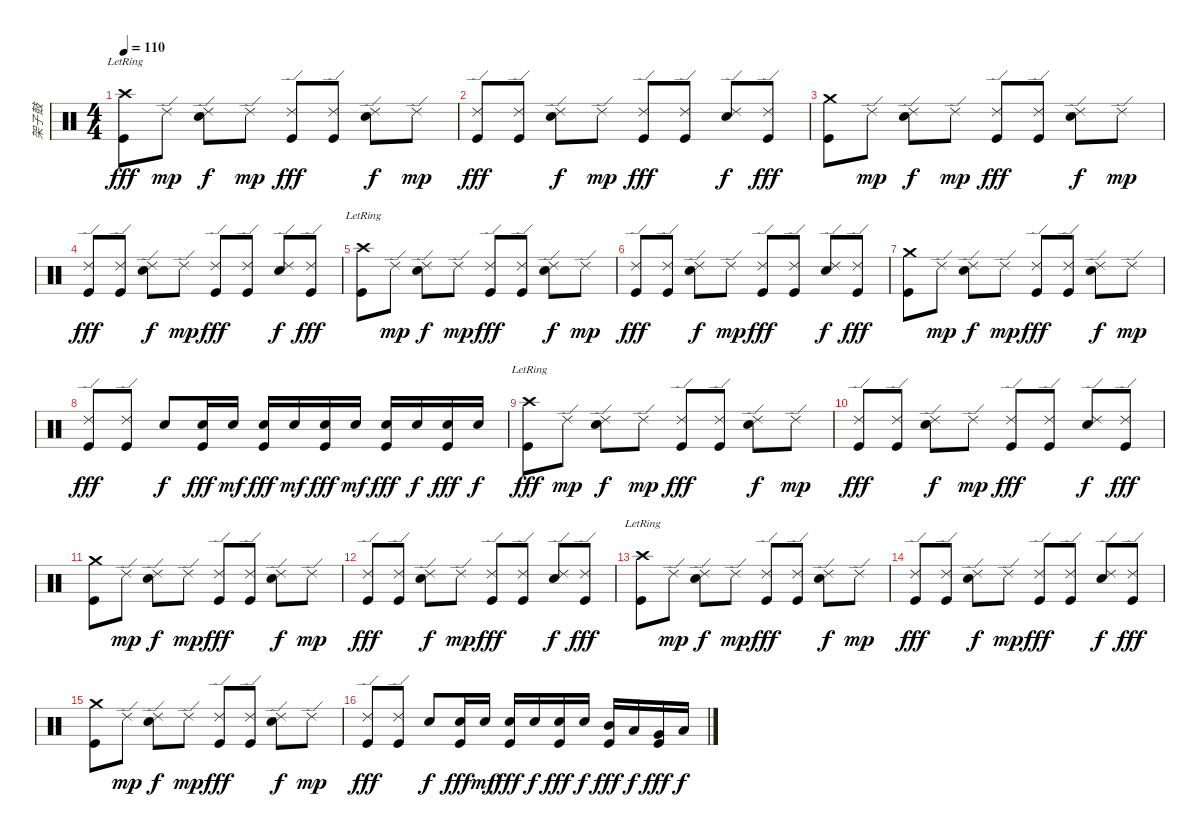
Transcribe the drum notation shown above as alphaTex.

\track ("架子鼓" "架子鼓") {instrument percussion}
\staff {score}
\articulation defaults
\ts (4 4)
\tempo 110
\clef neutral
\ks c
("Crash high (hit)"{lr} "Kick (hit)").8{dy fff volume 16} "Ride (edge) 2".8{dy mp} ("Ride (edge) 2" "Electric Snare (hit)").8{dy f} "Ride (edge) 2".8{dy mp} ("Ride (edge) 2" "Kick (hit)").8{dy fff} ("Ride (edge) 2" "Kick (hit)").8 ("Ride (edge) 2" "Electric Snare (hit)").8{dy f} "Ride (edge) 2".8{dy mp} |
("Ride (edge) 2" "Kick (hit)").8{dy fff} ("Ride (edge) 2" "Kick (hit)").8 ("Ride (edge) 2" "Electric Snare (hit)").8{dy f} "Ride (edge) 2".8{dy mp} ("Ride (edge) 2" "Kick (hit)").8{dy fff} ("Ride (edge) 2" "Kick (hit)").8 ("Ride (edge) 2" "Electric Snare (hit)").8{dy f} ("Ride (edge) 2" "Kick (hit)").8{dy fff} |
("Crash medium (hit)" "Kick (hit)").8 "Ride (edge) 2".8{dy mp} ("Ride (edge) 2" "Electric Snare (hit)").8{dy f} "Ride (edge) 2".8{dy mp} ("Ride (edge) 2" "Kick (hit)").8{dy fff} ("Ride (edge) 2" "Kick (hit)").8 ("Ride (edge) 2" "Electric Snare (hit)").8{dy f} "Ride (edge) 2".8{dy mp} |
("Ride (edge) 2" "Kick (hit)").8{dy fff} ("Ride (edge) 2" "Kick (hit)").8 ("Ride (edge) 2" "Electric Snare (hit)").8{dy f} "Ride (edge) 2".8{dy mp} ("Ride (edge) 2" "Kick (hit)").8{dy fff} ("Ride (edge) 2" "Kick (hit)").8 ("Ride (edge) 2" "Electric Snare (hit)").8{dy f} ("Ride (edge) 2" "Kick (hit)").8{dy fff} |
("Crash high (hit)"{lr} "Kick (hit)").8 "Ride (edge) 2".8{dy mp} ("Ride (edge) 2" "Electric Snare (hit)").8{dy f} "Ride (edge) 2".8{dy mp} ("Ride (edge) 2" "Kick (hit)").8{dy fff} ("Ride (edge) 2" "Kick (hit)").8 ("Ride (edge) 2" "Electric Snare (hit)").8{dy f} "Ride (edge) 2".8{dy mp} |
("Ride (edge) 2" "Kick (hit)").8{dy fff} ("Ride (edge) 2" "Kick (hit)").8 ("Ride (edge) 2" "Electric Snare (hit)").8{dy f} "Ride (edge) 2".8{dy mp} ("Ride (edge) 2" "Kick (hit)").8{dy fff} ("Ride (edge) 2" "Kick (hit)").8 ("Ride (edge) 2" "Electric Snare (hit)").8{dy f} ("Ride (edge) 2" "Kick (hit)").8{dy fff} |
("Crash medium (hit)" "Kick (hit)").8 "Ride (edge) 2".8{dy mp} ("Ride (edge) 2" "Electric Snare (hit)").8{dy f} "Ride (edge) 2".8{dy mp} ("Ride (edge) 2" "Kick (hit)").8{dy fff} ("Ride (edge) 2" "Kick (hit)").8 ("Ride (edge) 2" "Electric Snare (hit)").8{dy f} "Ride (edge) 2".8{dy mp} |
("Ride (edge) 2" "Kick (hit)").8{dy fff} ("Ride (edge) 2" "Kick (hit)").8 "Electric Snare (hit)".8{dy f} ("Electric Snare (hit)" "Kick (hit)").16{dy fff} "Electric Snare (hit)".16{dy mf} ("Electric Snare (hit)" "Kick (hit)").16{dy fff} "Electric Snare (hit)".16{dy mf} ("Electric Snare (hit)" "Kick (hit)").16{dy fff} "Electric Snare (hit)".16{dy mf} ("Electric Snare (hit)" "Kick (hit)").16{dy fff} "Electric Snare (hit)".16{dy f} ("Electric Snare (hit)" "Kick (hit)").16{dy fff} "Electric Snare (hit)".16{dy f} |
("Crash high (hit)"{lr} "Kick (hit)").8{dy fff} "Ride (edge) 2".8{dy mp} ("Ride (edge) 2" "Electric Snare (hit)").8{dy f} "Ride (edge) 2".8{dy mp} ("Ride (edge) 2" "Kick (hit)").8{dy fff} ("Ride (edge) 2" "Kick (hit)").8 ("Ride (edge) 2" "Electric Snare (hit)").8{dy f} "Ride (edge) 2".8{dy mp} |
("Ride (edge) 2" "Kick (hit)").8{dy fff} ("Ride (edge) 2" "Kick (hit)").8 ("Ride (edge) 2" "Electric Snare (hit)").8{dy f} "Ride (edge) 2".8{dy mp} ("Ride (edge) 2" "Kick (hit)").8{dy fff} ("Ride (edge) 2" "Kick (hit)").8 ("Ride (edge) 2" "Electric Snare (hit)").8{dy f} ("Ride (edge) 2" "Kick (hit)").8{dy fff} |
("Crash medium (hit)" "Kick (hit)").8 "Ride (edge) 2".8{dy mp} ("Ride (edge) 2" "Electric Snare (hit)").8{dy f} "Ride (edge) 2".8{dy mp} ("Ride (edge) 2" "Kick (hit)").8{dy fff} ("Ride (edge) 2" "Kick (hit)").8 ("Ride (edge) 2" "Electric Snare (hit)").8{dy f} "Ride (edge) 2".8{dy mp} |
("Ride (edge) 2" "Kick (hit)").8{dy fff} ("Ride (edge) 2" "Kick (hit)").8 ("Ride (edge) 2" "Electric Snare (hit)").8{dy f} "Ride (edge) 2".8{dy mp} ("Ride (edge) 2" "Kick (hit)").8{dy fff} ("Ride (edge) 2" "Kick (hit)").8 ("Ride (edge) 2" "Electric Snare (hit)").8{dy f} ("Ride (edge) 2" "Kick (hit)").8{dy fff} |
("Crash high (hit)"{lr} "Kick (hit)").8 "Ride (edge) 2".8{dy mp} ("Ride (edge) 2" "Electric Snare (hit)").8{dy f} "Ride (edge) 2".8{dy mp} ("Ride (edge) 2" "Kick (hit)").8{dy fff} ("Ride (edge) 2" "Kick (hit)").8 ("Ride (edge) 2" "Electric Snare (hit)").8{dy f} "Ride (edge) 2".8{dy mp} |
("Ride (edge) 2" "Kick (hit)").8{dy fff} ("Ride (edge) 2" "Kick (hit)").8 ("Ride (edge) 2" "Electric Snare (hit)").8{dy f} "Ride (edge) 2".8{dy mp} ("Ride (edge) 2" "Kick (hit)").8{dy fff} ("Ride (edge) 2" "Kick (hit)").8 ("Ride (edge) 2" "Electric Snare (hit)").8{dy f} ("Ride (edge) 2" "Kick (hit)").8{dy fff} |
("Crash medium (hit)" "Kick (hit)").8 "Ride (edge) 2".8{dy mp} ("Ride (edge) 2" "Electric Snare (hit)").8{dy f} "Ride (edge) 2".8{dy mp} ("Ride (edge) 2" "Kick (hit)").8{dy fff} ("Ride (edge) 2" "Kick (hit)").8 ("Ride (edge) 2" "Electric Snare (hit)").8{dy f} "Ride (edge) 2".8{dy mp} |
("Ride (edge) 2" "Kick (hit)").8{dy fff} ("Ride (edge) 2" "Kick (hit)").8 "Electric Snare (hit)".8{dy f} ("Electric Snare (hit)" "Kick (hit)").16{dy fff} "Electric Snare (hit)".16{dy mf} ("Electric Snare (hit)" "Kick (hit)").16{dy fff} "Electric Snare (hit)".16{dy f} ("Electric Snare (hit)" "Kick (hit)").16{dy fff} "Electric Snare (hit)".16{dy f} ("Mid Tom (hit)" "Kick (hit)").16{dy fff} "Low Tom (hit)".16{dy f} ("Very Low Tom (hit)" "Kick (hit)").16{dy fff} "Low Floor Tom (hit)".16{dy f}
